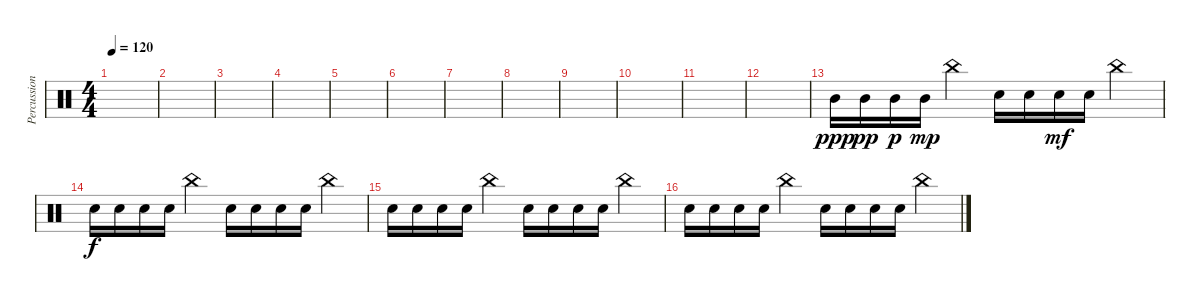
\track ("Percussion" "Percussion") {instrument percussion}
\staff {score}
\articulation defaults
\ts (4 4)
\tempo 120
\clef neutral
\ks c
|
|
|
|
|
|
|
|
|
|
|
|
"Mid Tom (hit)".16{dy ppp} "Mid Tom (hit)".16{dy pp} "Mid Tom (hit)".16{dy p} "Mid Tom (hit)".16{dy mp} "China (hit)".4 "Electric Snare (hit)".16 "Electric Snare (hit)".16 "Electric Snare (hit)".16{dy mf} "Electric Snare (hit)".16 "China (hit)".4 |
"Electric Snare (hit)".16{dy f} "Electric Snare (hit)".16 "Electric Snare (hit)".16 "Electric Snare (hit)".16 "China (hit)".4 "Electric Snare (hit)".16 "Electric Snare (hit)".16 "Electric Snare (hit)".16 "Electric Snare (hit)".16 "China (hit)".4 |
"Electric Snare (hit)".16 "Electric Snare (hit)".16 "Electric Snare (hit)".16 "Electric Snare (hit)".16 "China (hit)".4 "Electric Snare (hit)".16 "Electric Snare (hit)".16 "Electric Snare (hit)".16 "Electric Snare (hit)".16 "China (hit)".4 |
"Electric Snare (hit)".16 "Electric Snare (hit)".16 "Electric Snare (hit)".16 "Electric Snare (hit)".16 "China (hit)".4 "Electric Snare (hit)".16 "Electric Snare (hit)".16 "Electric Snare (hit)".16 "Electric Snare (hit)".16 "China (hit)".4
